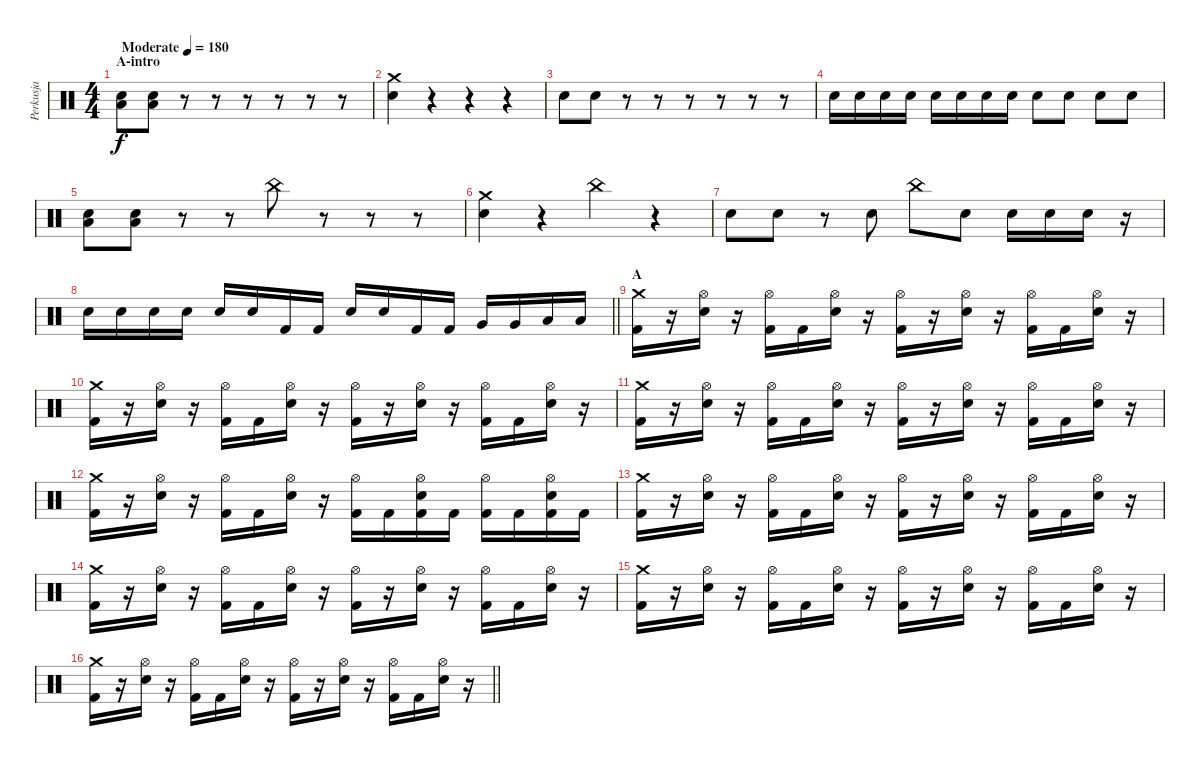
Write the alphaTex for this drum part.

\track ("Perkusja" "Perkusja") {instrument percussion}
\staff {score}
\articulation defaults
\ts (4 4)
\section ("" "A-intro")
\tempo (180 "Moderate")
\clef neutral
\ks c
("Snare (hit) 2" "Low Floor Tom (hit)").8{dy f} ("Snare (hit) 2" "Low Floor Tom (hit)").8 r.8 r.8 r.8 r.8 r.8 r.8 |
("Crash medium (hit)" "Snare (hit) 2").4 r.4 r.4 r.4 |
"Snare (hit) 2".8 "Snare (hit) 2".8 r.8 r.8 r.8 r.8 r.8 r.8 |
"Snare (hit) 2".16 "Snare (hit) 2".16 "Snare (hit) 2".16 "Snare (hit) 2".16 "Snare (hit) 2".16 "Snare (hit) 2".16 "Snare (hit) 2".16 "Snare (hit) 2".16 "Snare (hit) 2".8 "Snare (hit) 2".8 "Snare (hit) 2".8 "Snare (hit) 2".8 |
("Snare (hit) 2" "Low Floor Tom (hit)").8 ("Snare (hit) 2" "Low Floor Tom (hit)").8 r.8 r.8 "China (hit)".8 r.8 r.8 r.8 |
("Crash medium (hit)" "Snare (hit) 2").4 r.4 "China (hit)".4 r.4 |
"Snare (hit) 2".8 "Snare (hit) 2".8 r.8 "Snare (hit) 2".8 "China (hit)".8 "Snare (hit) 2".8 "Snare (hit) 2".16 "Snare (hit) 2".16 "Snare (hit) 2".16 r.16 |
\barLineRight lightlight "Snare (hit) 2".16 "Snare (hit) 2".16 "Snare (hit) 2".16 "Snare (hit) 2".16 "Snare (hit) 2".16 "Snare (hit) 2".16 "Kick (hit) 2".16 "Kick (hit) 2".16 "Snare (hit) 2".16 "Snare (hit) 2".16 "Kick (hit) 2".16 "Kick (hit) 2".16 "Very Low Tom (hit)".16 "Very Low Tom (hit)".16 "Low Floor Tom (hit)".16 "Low Floor Tom (hit)".16
|
\section ("" "A")
("Crash medium (hit)" "Kick (hit) 2").16 r.16 ("Hi-Hat (open)" "Snare (hit) 2").16 r.16 ("Hi-Hat (open)" "Kick (hit) 2").16 "Kick (hit) 2".16 ("Hi-Hat (open)" "Snare (hit) 2").16 r.16 ("Hi-Hat (open)" "Kick (hit) 2").16 r.16 ("Hi-Hat (open)" "Snare (hit) 2").16 r.16 ("Hi-Hat (open)" "Kick (hit) 2").16 "Kick (hit) 2".16 ("Hi-Hat (open)" "Snare (hit) 2").16 r.16 |
("Crash medium (hit)" "Kick (hit) 2").16 r.16 ("Hi-Hat (open)" "Snare (hit) 2").16 r.16 ("Hi-Hat (open)" "Kick (hit) 2").16 "Kick (hit) 2".16 ("Hi-Hat (open)" "Snare (hit) 2").16 r.16 ("Hi-Hat (open)" "Kick (hit) 2").16 r.16 ("Hi-Hat (open)" "Snare (hit) 2").16 r.16 ("Hi-Hat (open)" "Kick (hit) 2").16 "Kick (hit) 2".16 ("Hi-Hat (open)" "Snare (hit) 2").16 r.16 |
("Crash medium (hit)" "Kick (hit) 2").16 r.16 ("Hi-Hat (open)" "Snare (hit) 2").16 r.16 ("Hi-Hat (open)" "Kick (hit) 2").16 "Kick (hit) 2".16 ("Hi-Hat (open)" "Snare (hit) 2").16 r.16 ("Hi-Hat (open)" "Kick (hit) 2").16 r.16 ("Hi-Hat (open)" "Snare (hit) 2").16 r.16 ("Hi-Hat (open)" "Kick (hit) 2").16 "Kick (hit) 2".16 ("Hi-Hat (open)" "Snare (hit) 2").16 r.16 |
("Crash medium (hit)" "Kick (hit) 2").16 r.16 ("Hi-Hat (open)" "Snare (hit) 2").16 r.16 ("Hi-Hat (open)" "Kick (hit) 2").16 "Kick (hit) 2".16 ("Hi-Hat (open)" "Snare (hit) 2").16 r.16 ("Hi-Hat (open)" "Kick (hit) 2").16 "Kick (hit) 2".16 ("Hi-Hat (open)" "Snare (hit) 2" "Kick (hit) 2").16 "Kick (hit) 2".16 ("Hi-Hat (open)" "Kick (hit) 2").16 "Kick (hit) 2".16 ("Hi-Hat (open)" "Snare (hit) 2" "Kick (hit) 2").16 "Kick (hit) 2".16 |
("Crash medium (hit)" "Kick (hit) 2").16 r.16 ("Hi-Hat (open)" "Snare (hit) 2").16 r.16 ("Hi-Hat (open)" "Kick (hit) 2").16 "Kick (hit) 2".16 ("Hi-Hat (open)" "Snare (hit) 2").16 r.16 ("Hi-Hat (open)" "Kick (hit) 2").16 r.16 ("Hi-Hat (open)" "Snare (hit) 2").16 r.16 ("Hi-Hat (open)" "Kick (hit) 2").16 "Kick (hit) 2".16 ("Hi-Hat (open)" "Snare (hit) 2").16 r.16 |
("Crash medium (hit)" "Kick (hit) 2").16 r.16 ("Hi-Hat (open)" "Snare (hit) 2").16 r.16 ("Hi-Hat (open)" "Kick (hit) 2").16 "Kick (hit) 2".16 ("Hi-Hat (open)" "Snare (hit) 2").16 r.16 ("Hi-Hat (open)" "Kick (hit) 2").16 r.16 ("Hi-Hat (open)" "Snare (hit) 2").16 r.16 ("Hi-Hat (open)" "Kick (hit) 2").16 "Kick (hit) 2".16 ("Hi-Hat (open)" "Snare (hit) 2").16 r.16 |
("Crash medium (hit)" "Kick (hit) 2").16 r.16 ("Hi-Hat (open)" "Snare (hit) 2").16 r.16 ("Hi-Hat (open)" "Kick (hit) 2").16 "Kick (hit) 2".16 ("Hi-Hat (open)" "Snare (hit) 2").16 r.16 ("Hi-Hat (open)" "Kick (hit) 2").16 r.16 ("Hi-Hat (open)" "Snare (hit) 2").16 r.16 ("Hi-Hat (open)" "Kick (hit) 2").16 "Kick (hit) 2".16 ("Hi-Hat (open)" "Snare (hit) 2").16 r.16 |
\barLineRight lightlight
("Crash medium (hit)" "Kick (hit) 2").16 r.16 ("Hi-Hat (open)" "Snare (hit) 2").16 r.16 ("Hi-Hat (open)" "Kick (hit) 2").16 "Kick (hit) 2".16 ("Hi-Hat (open)" "Snare (hit) 2").16 r.16 ("Hi-Hat (open)" "Kick (hit) 2").16 r.16 ("Hi-Hat (open)" "Snare (hit) 2").16 r.16 ("Hi-Hat (open)" "Kick (hit) 2").16 "Kick (hit) 2".16 ("Hi-Hat (open)" "Snare (hit) 2").16 r.16
